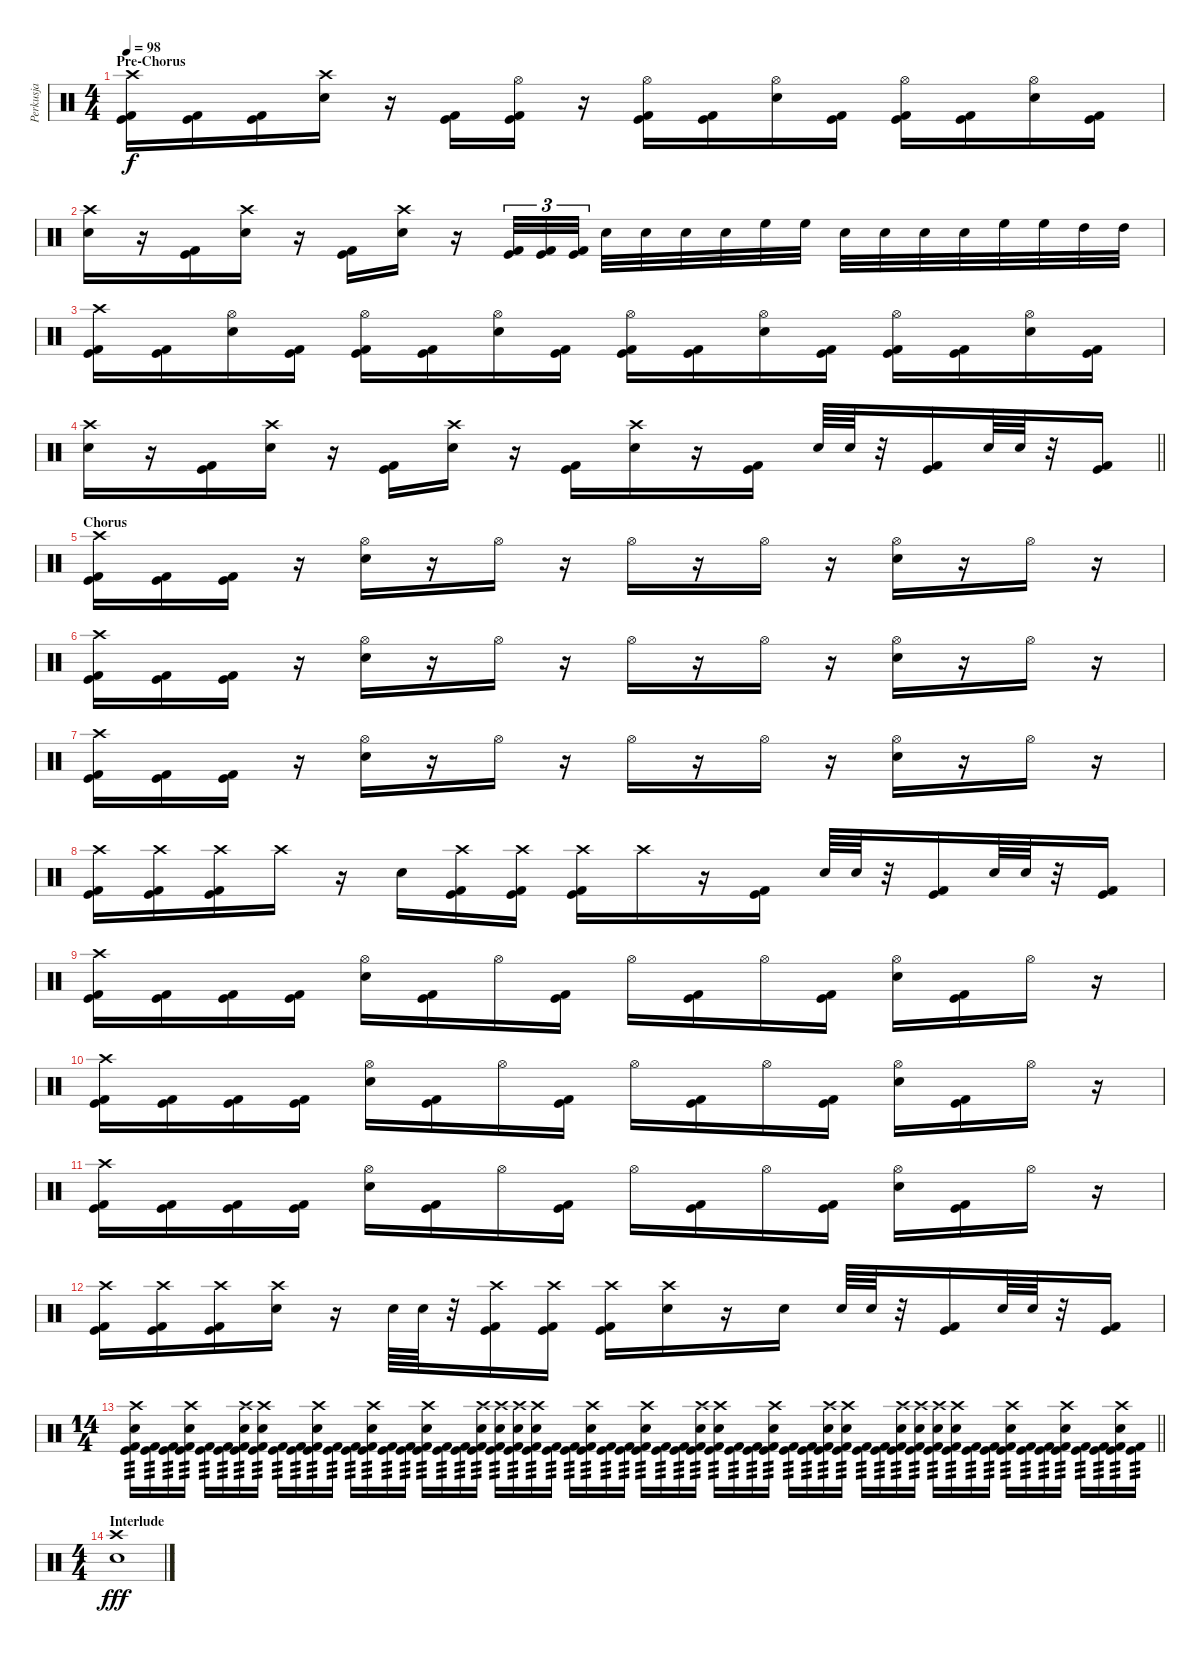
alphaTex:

\track ("Perkusja" "Perkusja") {instrument percussion}
\staff {score}
\articulation defaults
\ts (4 4)
\section ("" "Pre-Chorus")
\tempo 98
\clef neutral
\ks c
("Crash high (hit)" "Kick (hit)" "Kick (hit) 2").16{dy f} ("Kick (hit)" "Kick (hit) 2").16 ("Kick (hit)" "Kick (hit) 2").16 ("Crash high (hit)" "Electric Snare (hit)").16 r.16 ("Kick (hit)" "Kick (hit) 2").16 ("Hi-Hat (open)" "Kick (hit)" "Kick (hit) 2").16 r.16 ("Hi-Hat (open)" "Kick (hit)" "Kick (hit) 2").16 ("Kick (hit)" "Kick (hit) 2").16 ("Hi-Hat (open)" "Electric Snare (hit)").16 ("Kick (hit)" "Kick (hit) 2").16 ("Hi-Hat (open)" "Kick (hit)" "Kick (hit) 2").16 ("Kick (hit)" "Kick (hit) 2").16 ("Hi-Hat (open)" "Electric Snare (hit)").16 ("Kick (hit)" "Kick (hit) 2").16 |
("Crash high (hit)" "Electric Snare (hit)").16 r.16 ("Kick (hit)" "Kick (hit) 2").16 ("Crash high (hit)" "Electric Snare (hit)").16 r.16 ("Kick (hit)" "Kick (hit) 2").16 ("Crash high (hit)" "Electric Snare (hit)").16 r.16 ("Kick (hit)" "Kick (hit) 2").32{tu (3 2)} ("Kick (hit)" "Kick (hit) 2").32{tu (3 2)} ("Kick (hit)" "Kick (hit) 2").32{tu (3 2) beam splitsecondary} "Electric Snare (hit)".32 "Electric Snare (hit)".32 "Electric Snare (hit)".32 "Electric Snare (hit)".32 "High Floor Tom (hit)".32 "High Floor Tom (hit)".32 "Electric Snare (hit)".32 "Electric Snare (hit)".32 "Electric Snare (hit)".32 "Electric Snare (hit)".32 "High Floor Tom (hit)".32 "High Floor Tom (hit)".32 "High Tom (hit)".32 "High Tom (hit)".32 |
("Crash high (hit)" "Kick (hit)" "Kick (hit) 2").16 ("Kick (hit)" "Kick (hit) 2").16 ("Hi-Hat (open)" "Electric Snare (hit)").16 ("Kick (hit)" "Kick (hit) 2").16 ("Hi-Hat (open)" "Kick (hit)" "Kick (hit) 2").16 ("Kick (hit)" "Kick (hit) 2").16 ("Hi-Hat (open)" "Electric Snare (hit)").16 ("Kick (hit)" "Kick (hit) 2").16 ("Hi-Hat (open)" "Kick (hit)" "Kick (hit) 2").16 ("Kick (hit)" "Kick (hit) 2").16 ("Hi-Hat (open)" "Electric Snare (hit)").16 ("Kick (hit)" "Kick (hit) 2").16 ("Hi-Hat (open)" "Kick (hit)" "Kick (hit) 2").16 ("Kick (hit)" "Kick (hit) 2").16 ("Hi-Hat (open)" "Electric Snare (hit)").16 ("Kick (hit)" "Kick (hit) 2").16 |
\barLineRight lightlight
("Crash high (hit)" "Electric Snare (hit)").16 r.16 ("Kick (hit)" "Kick (hit) 2").16 ("Crash high (hit)" "Electric Snare (hit)").16 r.16 ("Kick (hit)" "Kick (hit) 2").16 ("Crash high (hit)" "Electric Snare (hit)").16 r.16 ("Kick (hit)" "Kick (hit) 2").16 ("Crash high (hit)" "Electric Snare (hit)").16 r.16 ("Kick (hit)" "Kick (hit) 2").16 "Electric Snare (hit)".64 "Electric Snare (hit)".64 r.32 ("Kick (hit)" "Kick (hit) 2").16 "Electric Snare (hit)".64 "Electric Snare (hit)".64 r.32 ("Kick (hit)" "Kick (hit) 2").16 |
\section ("" "Chorus")
("Crash high (hit)" "Kick (hit)" "Kick (hit) 2").16 ("Kick (hit)" "Kick (hit) 2").16 ("Kick (hit)" "Kick (hit) 2").16 r.16 ("Hi-Hat (open)" "Electric Snare (hit)").16 r.16 "Hi-Hat (open)".16 r.16 "Hi-Hat (open)".16 r.16 "Hi-Hat (open)".16 r.16 ("Hi-Hat (open)" "Electric Snare (hit)").16 r.16 "Hi-Hat (open)".16 r.16 |
("Crash high (hit)" "Kick (hit)" "Kick (hit) 2").16 ("Kick (hit)" "Kick (hit) 2").16 ("Kick (hit)" "Kick (hit) 2").16 r.16 ("Hi-Hat (open)" "Electric Snare (hit)").16 r.16 "Hi-Hat (open)".16 r.16 "Hi-Hat (open)".16 r.16 "Hi-Hat (open)".16 r.16 ("Hi-Hat (open)" "Electric Snare (hit)").16 r.16 "Hi-Hat (open)".16 r.16 |
("Crash high (hit)" "Kick (hit)" "Kick (hit) 2").16 ("Kick (hit)" "Kick (hit) 2").16 ("Kick (hit)" "Kick (hit) 2").16 r.16 ("Hi-Hat (open)" "Electric Snare (hit)").16 r.16 "Hi-Hat (open)".16 r.16 "Hi-Hat (open)".16 r.16 "Hi-Hat (open)".16 r.16 ("Hi-Hat (open)" "Electric Snare (hit)").16 r.16 "Hi-Hat (open)".16 r.16 |
("Crash high (hit)" "Kick (hit)" "Kick (hit) 2").16 ("Crash high (hit)" "Kick (hit)" "Kick (hit) 2").16 ("Crash high (hit)" "Kick (hit)" "Kick (hit) 2").16 "Crash high (hit)".16 r.16 "Electric Snare (hit)".16 ("Crash high (hit)" "Kick (hit)" "Kick (hit) 2").16 ("Crash high (hit)" "Kick (hit)" "Kick (hit) 2").16 ("Crash high (hit)" "Kick (hit)" "Kick (hit) 2").16 "Crash high (hit)".16 r.16 ("Kick (hit)" "Kick (hit) 2").16 "Electric Snare (hit)".64 "Electric Snare (hit)".64 r.32 ("Kick (hit)" "Kick (hit) 2").16 "Electric Snare (hit)".64 "Electric Snare (hit)".64 r.32 ("Kick (hit)" "Kick (hit) 2").16 |
("Crash high (hit)" "Kick (hit)" "Kick (hit) 2").16 ("Kick (hit)" "Kick (hit) 2").16 ("Kick (hit)" "Kick (hit) 2").16 ("Kick (hit)" "Kick (hit) 2").16 ("Hi-Hat (open)" "Electric Snare (hit)").16 ("Kick (hit)" "Kick (hit) 2").16 "Hi-Hat (open)".16 ("Kick (hit)" "Kick (hit) 2").16 "Hi-Hat (open)".16 ("Kick (hit)" "Kick (hit) 2").16 "Hi-Hat (open)".16 ("Kick (hit)" "Kick (hit) 2").16 ("Hi-Hat (open)" "Electric Snare (hit)").16 ("Kick (hit)" "Kick (hit) 2").16 "Hi-Hat (open)".16 r.16 |
("Crash high (hit)" "Kick (hit)" "Kick (hit) 2").16 ("Kick (hit)" "Kick (hit) 2").16 ("Kick (hit)" "Kick (hit) 2").16 ("Kick (hit)" "Kick (hit) 2").16 ("Hi-Hat (open)" "Electric Snare (hit)").16 ("Kick (hit)" "Kick (hit) 2").16 "Hi-Hat (open)".16 ("Kick (hit)" "Kick (hit) 2").16 "Hi-Hat (open)".16 ("Kick (hit)" "Kick (hit) 2").16 "Hi-Hat (open)".16 ("Kick (hit)" "Kick (hit) 2").16 ("Hi-Hat (open)" "Electric Snare (hit)").16 ("Kick (hit)" "Kick (hit) 2").16 "Hi-Hat (open)".16 r.16 |
("Crash high (hit)" "Kick (hit)" "Kick (hit) 2").16 ("Kick (hit)" "Kick (hit) 2").16 ("Kick (hit)" "Kick (hit) 2").16 ("Kick (hit)" "Kick (hit) 2").16 ("Hi-Hat (open)" "Electric Snare (hit)").16 ("Kick (hit)" "Kick (hit) 2").16 "Hi-Hat (open)".16 ("Kick (hit)" "Kick (hit) 2").16 "Hi-Hat (open)".16 ("Kick (hit)" "Kick (hit) 2").16 "Hi-Hat (open)".16 ("Kick (hit)" "Kick (hit) 2").16 ("Hi-Hat (open)" "Electric Snare (hit)").16 ("Kick (hit)" "Kick (hit) 2").16 "Hi-Hat (open)".16 r.16 |
("Crash high (hit)" "Kick (hit)" "Kick (hit) 2").16 ("Crash high (hit)" "Kick (hit)" "Kick (hit) 2").16 ("Crash high (hit)" "Kick (hit)" "Kick (hit) 2").16 ("Crash high (hit)" "Electric Snare (hit)").16 r.16 "Electric Snare (hit)".64 "Electric Snare (hit)".64 r.32 ("Crash high (hit)" "Kick (hit)" "Kick (hit) 2").16 ("Crash high (hit)" "Kick (hit)" "Kick (hit) 2").16 ("Crash high (hit)" "Kick (hit)" "Kick (hit) 2").16 ("Crash high (hit)" "Electric Snare (hit)").16 r.16 "Electric Snare (hit)".16 "Electric Snare (hit)".64 "Electric Snare (hit)".64 r.32 ("Kick (hit)" "Kick (hit) 2").16 "Electric Snare (hit)".64 "Electric Snare (hit)".64 r.32 ("Kick (hit)" "Kick (hit) 2").16 |
\ts (14 4)
\barLineRight lightlight
("Crash high (hit)" "Electric Snare (hit)" "Kick (hit)" "Kick (hit) 2").16{tp 3} ("Kick (hit)" "Kick (hit) 2").16{tp 3} ("Kick (hit)" "Kick (hit) 2").16{tp 3} ("Crash high (hit)" "Electric Snare (hit)" "Kick (hit)" "Kick (hit) 2").16{tp 3} ("Kick (hit)" "Kick (hit) 2").16{tp 3} ("Kick (hit)" "Kick (hit) 2").16{tp 3} ("Crash high (hit)" "Snare (hit) 2" "Kick (hit)" "Kick (hit) 2").16{tp 3} ("Crash high (hit)" "Snare (hit) 2" "Kick (hit)" "Kick (hit) 2").16{tp 3} ("Kick (hit)" "Kick (hit) 2").16{tp 3} ("Kick (hit)" "Kick (hit) 2").16{tp 3} ("Crash high (hit)" "Electric Snare (hit)" "Kick (hit)" "Kick (hit) 2").16{tp 3} ("Kick (hit)" "Kick (hit) 2").16{tp 3} ("Kick (hit)" "Kick (hit) 2").16{tp 3} ("Crash high (hit)" "Electric Snare (hit)" "Kick (hit)" "Kick (hit) 2").16{tp 3} ("Kick (hit)" "Kick (hit) 2").16{tp 3} ("Kick (hit)" "Kick (hit) 2").16{tp 3} ("Crash high (hit)" "Electric Snare (hit)" "Kick (hit)" "Kick (hit) 2").16{tp 3} ("Kick (hit)" "Kick (hit) 2").16{tp 3} ("Kick (hit)" "Kick (hit) 2").16{tp 3} ("Crash high (hit)" "Snare (hit) 2" "Kick (hit)" "Kick (hit) 2").16{tp 3} ("Crash high (hit)" "Snare (hit) 2" "Kick (hit)" "Kick (hit) 2").16{tp 3} ("Crash high (hit)" "Snare (hit) 2" "Kick (hit)" "Kick (hit) 2").16{tp 3} ("Crash high (hit)" "Electric Snare (hit)" "Kick (hit)" "Kick (hit) 2").16{tp 3} ("Kick (hit)" "Kick (hit) 2").16{tp 3} ("Kick (hit)" "Kick (hit) 2").16{tp 3} ("Crash high (hit)" "Electric Snare (hit)" "Kick (hit)" "Kick (hit) 2").16{tp 3} ("Kick (hit)" "Kick (hit) 2").16{tp 3} ("Kick (hit)" "Kick (hit) 2").16{tp 3} ("Crash high (hit)" "Electric Snare (hit)" "Kick (hit)" "Kick (hit) 2").16{tp 3} ("Kick (hit)" "Kick (hit) 2").16{tp 3} ("Kick (hit)" "Kick (hit) 2").16{tp 3} ("Crash high (hit)" "Electric Snare (hit)" "Kick (hit)" "Kick (hit) 2").16{tp 3} ("Crash high (hit)" "Electric Snare (hit)" "Kick (hit)" "Kick (hit) 2").16{tp 3} ("Kick (hit)" "Kick (hit) 2").16{tp 3} ("Kick (hit)" "Kick (hit) 2").16{tp 3} ("Crash high (hit)" "Snare (hit) 2" "Kick (hit)" "Kick (hit) 2").16{tp 3} ("Kick (hit)" "Kick (hit) 2").16{tp 3} ("Kick (hit)" "Kick (hit) 2").16{tp 3} ("Crash high (hit)" "Electric Snare (hit)" "Kick (hit)" "Kick (hit) 2").16{tp 3} ("Crash high (hit)" "Electric Snare (hit)" "Kick (hit)" "Kick (hit) 2").16{tp 3} ("Kick (hit)" "Kick (hit) 2").16{tp 3} ("Kick (hit)" "Kick (hit) 2").16{tp 3} ("Crash high (hit)" "Electric Snare (hit)" "Kick (hit)" "Kick (hit) 2").16{tp 3} ("Crash high (hit)" "Electric Snare (hit)" "Kick (hit)" "Kick (hit) 2").16{tp 3} ("Crash high (hit)" "Electric Snare (hit)" "Kick (hit)" "Kick (hit) 2").16{tp 3} ("Crash high (hit)" "Electric Snare (hit)" "Kick (hit)" "Kick (hit) 2").16{tp 3} ("Kick (hit)" "Kick (hit) 2").16{tp 3} ("Kick (hit)" "Kick (hit) 2").16{tp 3} ("Crash high (hit)" "Electric Snare (hit)" "Kick (hit)" "Kick (hit) 2").16{tp 3} ("Kick (hit)" "Kick (hit) 2").16{tp 3} ("Kick (hit)" "Kick (hit) 2").16{tp 3} ("Crash high (hit)" "Electric Snare (hit)" "Kick (hit)" "Kick (hit) 2").16{tp 3} ("Kick (hit)" "Kick (hit) 2").16{tp 3} ("Kick (hit)" "Kick (hit) 2").16{tp 3} ("Crash high (hit)" "Electric Snare (hit)" "Kick (hit)" "Kick (hit) 2").16{tp 3} ("Kick (hit)" "Kick (hit) 2").16{tp 3} |
\ts (4 4)
\section ("" "Interlude")
("Crash high (hit)" "Electric Snare (hit)").1{dy fff}
